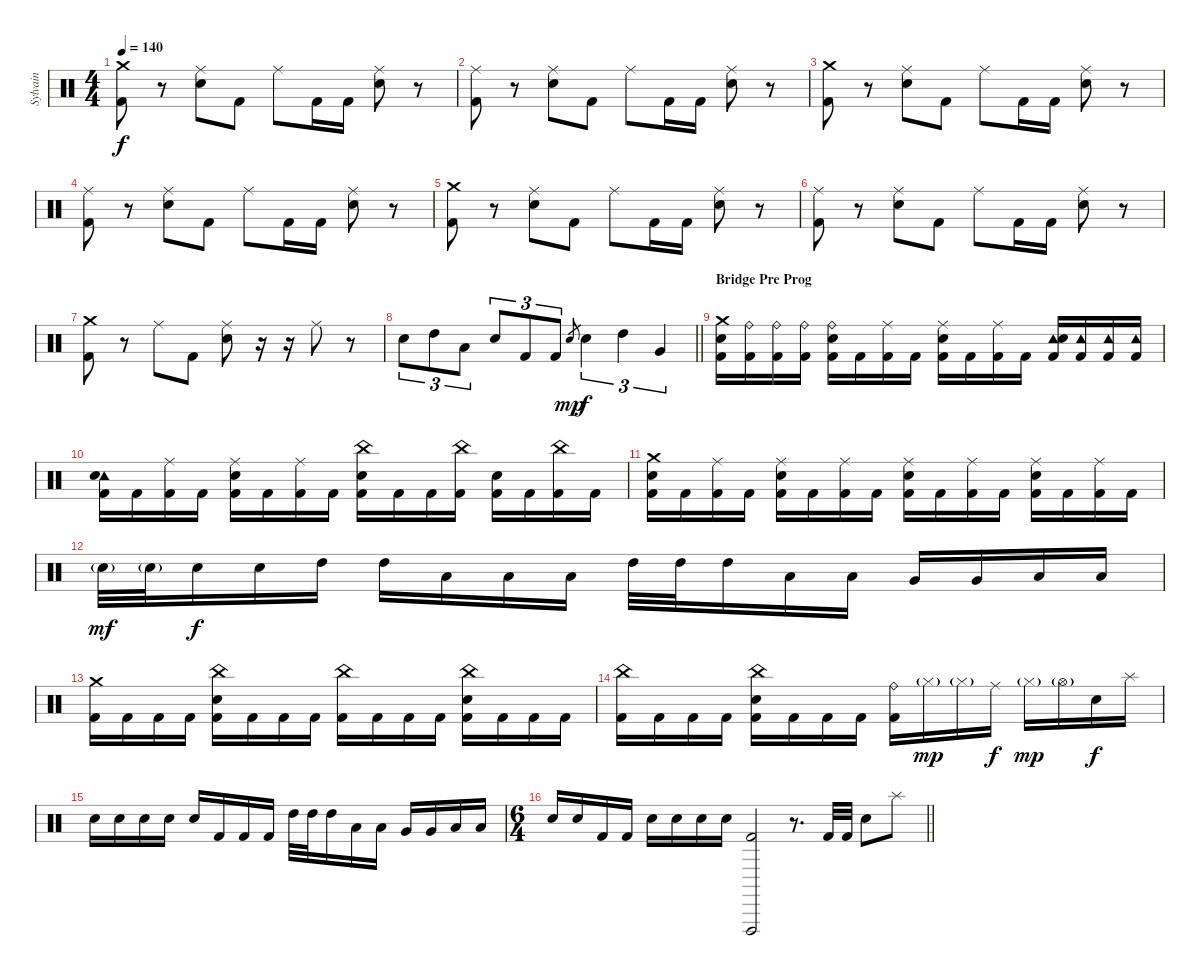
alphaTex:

\track ("Sylvain" "Sylvain") {instrument percussion}
\staff {score}
\articulation defaults
\ts (4 4)
\tempo 140
\clef neutral
\ks c
("Crash medium (hit)" "Kick (hit) 2").8{dy f} r.8 ("Ride (middle)" "Snare (hit) 2").8 "Kick (hit) 2".8 "Ride (middle)".8 "Kick (hit) 2".16 "Kick (hit) 2".16 ("Ride (middle)" "Snare (hit) 2").8 r.8 |
("Ride (middle)" "Kick (hit) 2").8 r.8 ("Ride (middle)" "Snare (hit) 2").8 "Kick (hit) 2".8 "Ride (middle)".8 "Kick (hit) 2".16 "Kick (hit) 2".16 ("Ride (middle)" "Snare (hit) 2").8 r.8 |
("Crash medium (hit)" "Kick (hit) 2").8 r.8 ("Ride (middle)" "Snare (hit) 2").8 "Kick (hit) 2".8 "Ride (middle)".8 "Kick (hit) 2".16 "Kick (hit) 2".16 ("Ride (middle)" "Snare (hit) 2").8 r.8 |
("Ride (middle)" "Kick (hit) 2").8 r.8 ("Ride (middle)" "Snare (hit) 2").8 "Kick (hit) 2".8 "Ride (middle)".8 "Kick (hit) 2".16 "Kick (hit) 2".16 ("Ride (middle)" "Snare (hit) 2").8 r.8 |
("Crash medium (hit)" "Kick (hit) 2").8 r.8 ("Ride (middle)" "Snare (hit) 2").8 "Kick (hit) 2".8 "Ride (middle)".8 "Kick (hit) 2".16 "Kick (hit) 2".16 ("Ride (middle)" "Snare (hit) 2").8 r.8 |
("Ride (middle)" "Kick (hit) 2").8 r.8 ("Ride (middle)" "Snare (hit) 2").8 "Kick (hit) 2".8 "Ride (middle)".8 "Kick (hit) 2".16 "Kick (hit) 2".16 ("Ride (middle)" "Snare (hit) 2").8 r.8 |
("Crash medium (hit)" "Kick (hit) 2").8 r.8 "Ride (middle)".8 "Kick (hit) 2".8 ("Ride (middle)" "Snare (hit) 2").8 r.16 r.16 "Ride (middle)".8 r.8 |
\barLineRight lightlight "Snare (hit) 2".8{tu (3 2)} "High Tom (hit)".8{tu (3 2)} "Low Tom (hit)".8{tu (3 2)} "Snare (hit) 2".8{tu (3 2)} "Kick (hit) 2".8{tu (3 2)} "Kick (hit) 2".8{tu (3 2)} "Snare (hit) 2".8{gr dy mp} "Snare (hit) 2".4{tu (3 2) dy f} "High Tom (hit)".4{tu (3 2)} "Very Low Tom (hit)".4{tu (3 2)}
|
\section ("" "Bridge Pre Prog")
("Crash medium (hit)" "Snare (hit) 2" "Kick (hit) 2").16 ("Ride (bell)" "Kick (hit) 2").16 ("Ride (bell)" "Kick (hit) 2").16 ("Ride (bell)" "Kick (hit) 2").16 ("Ride (bell)" "Snare (hit) 2" "Kick (hit) 2").16 "Kick (hit) 2".16 ("Ride (middle)" "Kick (hit) 2").16 "Kick (hit) 2".16 ("Ride (middle)" "Snare (hit) 2" "Kick (hit) 2").16 "Kick (hit) 2".16 ("Ride (middle)" "Kick (hit) 2").16 "Kick (hit) 2".16 ("Tambourine (hit)" "Snare (hit) 2" "Kick (hit) 2").16 ("Tambourine (hit)" "Kick (hit) 2").16 ("Tambourine (hit)" "Kick (hit) 2").16 ("Tambourine (hit)" "Kick (hit) 2").16 |
("Tambourine (hit)" "Snare (hit) 2" "Kick (hit) 2").16 "Kick (hit) 2".16 ("Ride (middle)" "Kick (hit) 2").16 "Kick (hit) 2".16 ("Ride (middle)" "Snare (hit) 2" "Kick (hit) 2").16 "Kick (hit) 2".16 ("Ride (middle)" "Kick (hit) 2").16 "Kick (hit) 2".16 ("China (hit)" "Snare (hit) 2" "Kick (hit) 2").16 "Kick (hit) 2".16 "Kick (hit) 2".16 ("China (hit)" "Kick (hit) 2").16 ("Snare (hit) 2" "Kick (hit) 2").16 "Kick (hit) 2".16 ("China (hit)" "Kick (hit) 2").16 "Kick (hit) 2".16 |
("Crash medium (hit)" "Snare (hit) 2" "Kick (hit) 2").16 "Kick (hit) 2".16 ("Ride (middle)" "Kick (hit) 2").16 "Kick (hit) 2".16 ("Ride (middle)" "Snare (hit) 2" "Kick (hit) 2").16 "Kick (hit) 2".16 ("Ride (middle)" "Kick (hit) 2").16 "Kick (hit) 2".16 ("Ride (middle)" "Snare (hit) 2" "Kick (hit) 2").16 "Kick (hit) 2".16 ("Ride (middle)" "Kick (hit) 2").16 "Kick (hit) 2".16 ("Ride (middle)" "Snare (hit) 2" "Kick (hit) 2").16 "Kick (hit) 2".16 ("Ride (middle)" "Kick (hit) 2").16 "Kick (hit) 2".16 |
"Snare (hit) 2"{g}.32{dy mf} "Snare (hit) 2"{g}.32 "Snare (hit) 2".16{dy f} "Snare (hit) 2".16 "High Tom (hit)".16 "High Tom (hit)".16 "Low Tom (hit)".16 "Low Tom (hit)".16 "Low Floor Tom (hit)".16 "High Tom (hit)".32 "High Tom (hit)".32 "High Tom (hit)".16 "Low Tom (hit)".16 "Low Tom (hit)".16 "Very Low Tom (hit)".16 "Very Low Tom (hit)".16 "Low Floor Tom (hit)".16 "Low Floor Tom (hit)".16 |
("Crash medium (hit)" "Kick (hit) 2").16 "Kick (hit) 2".16 "Kick (hit) 2".16 "Kick (hit) 2".16 ("China (hit)" "Snare (hit) 2" "Kick (hit) 2").16 "Kick (hit) 2".16 "Kick (hit) 2".16 "Kick (hit) 2".16 ("China (hit)" "Kick (hit) 2").16 "Kick (hit) 2".16 "Kick (hit) 2".16 "Kick (hit) 2".16 ("China (hit)" "Snare (hit) 2" "Kick (hit) 2").16 "Kick (hit) 2".16 "Kick (hit) 2".16 "Kick (hit) 2".16 |
("China (hit)" "Kick (hit) 2").16 "Kick (hit) 2".16 "Kick (hit) 2".16 "Kick (hit) 2".16 ("China (hit)" "Snare (hit) 2" "Kick (hit) 2").16 "Kick (hit) 2".16 "Kick (hit) 2".16 "Kick (hit) 2".16 ("Ride (bell)" "Kick (hit) 2").16 "Hi-Hat (closed)"{g}.16{dy mp} "Hi-Hat (closed)"{g}.16 "Ride (middle)".16{dy f} "Hi-Hat (closed)"{g}.16{dy mp} "Hi-Hat (open)"{g}.16 "Snare (hit) 2".16{dy f} "Splash (hit)".16 |
"Snare (hit) 2".16 "Snare (hit) 2".16 "Snare (hit) 2".16 "Snare (hit) 2".16 "Snare (hit) 2".16 "Kick (hit) 2".16 "Kick (hit) 2".16 "Kick (hit) 2".16 "High Tom (hit)".32 "High Tom (hit)".32 "High Tom (hit)".16 "Low Tom (hit)".16 "Low Tom (hit)".16 "Very Low Tom (hit)".16 "Very Low Tom (hit)".16 "Low Floor Tom (hit)".16 "Low Floor Tom (hit)".16 |
\ts (6 4)
\barLineRight lightlight "Snare (hit) 2".16 "Snare (hit) 2".16 "Kick (hit) 2".16 "Kick (hit) 2".16 "Snare (hit) 2".16 "Snare (hit) 2".16 "Snare (hit) 2".16 "Snare (hit) 2".16
("Vibraslap (hit)" "Kick (hit) 2").2 r.8{d} "Kick (hit) 2".32 "Kick (hit) 2".32 "Snare (hit) 2".8 "Splash (hit)".8
